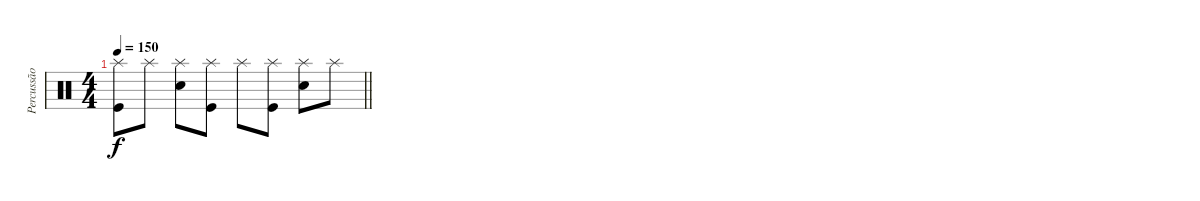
\track ("Percussão" "Percussão") {instrument percussion}
\staff {score}
\articulation defaults
\ts (4 4)
\tempo 150
\clef neutral
\barLineRight lightlight
\ks c
("Splash (hit)" "Kick (hit)").8{dy f} "Splash (hit)".8 ("Splash (hit)" "Electric Snare (hit)").8 ("Splash (hit)" "Kick (hit)").8 "Splash (hit)".8 ("Splash (hit)" "Kick (hit)").8 ("Splash (hit)" "Electric Snare (hit)").8 "Splash (hit)".8
